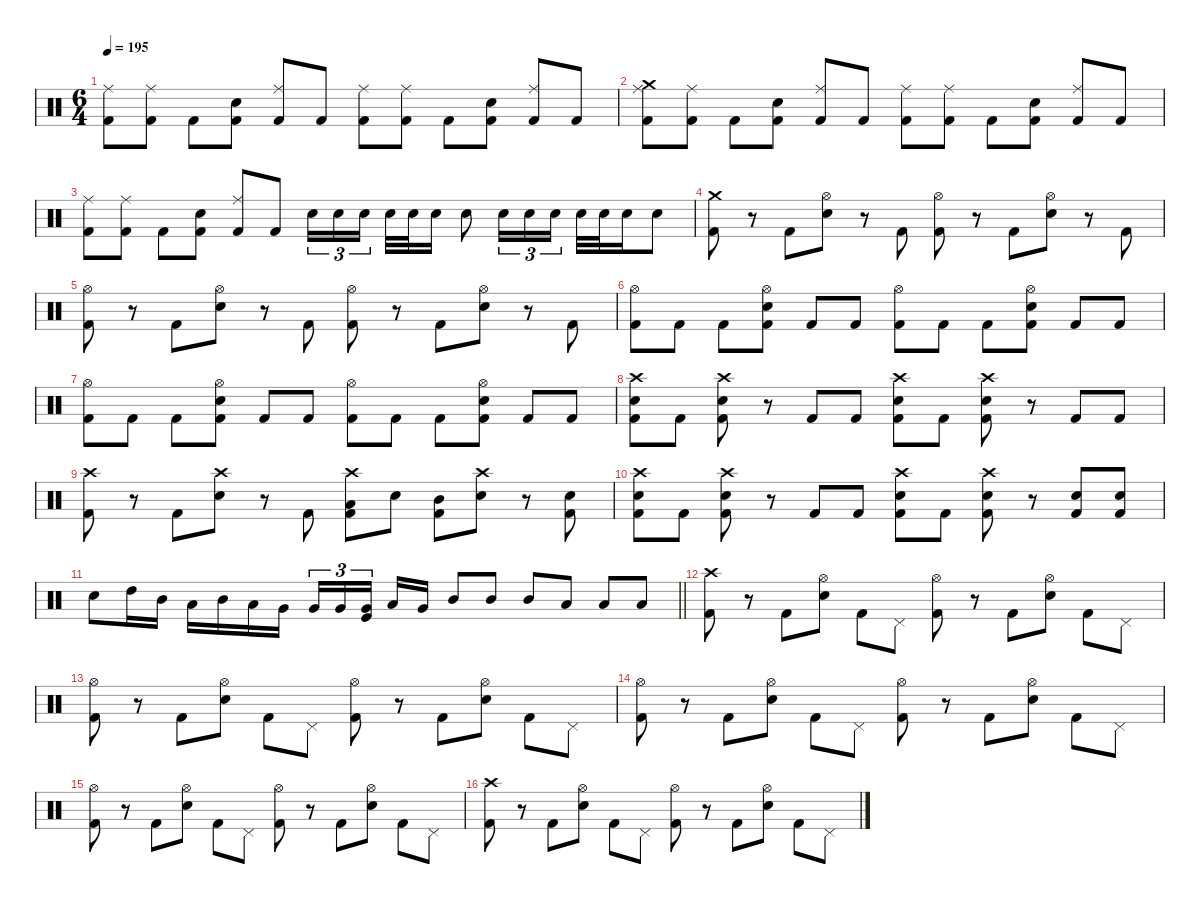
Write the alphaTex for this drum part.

\defaultSystemsLayout 4
\hideDynamics
\bracketExtendMode nobrackets
\singleTrackTrackNamePolicy hidden
\multiTrackTrackNamePolicy hidden
\firstSystemTrackNameMode fullname
\firstSystemTrackNameOrientation horizontal
\otherSystemsTrackNameOrientation horizontal
\track ("Drums" "drm.") {instrument percussion}
\staff {score}
\articulation defaults
\ts (6 4)
\tempo 195
\clef neutral
\ks c
("Ride (middle)" "Kick (hit) 2").8{dy f beam Down} ("Ride (middle)" "Kick (hit) 2").8{beam Down} "Kick (hit) 2".8{beam Down} ("Snare (hit) 2" "Kick (hit) 2").8{beam Up} ("Ride (middle)" "Kick (hit) 2").8{beam Up} "Kick (hit) 2".8{beam Up} ("Ride (middle)" "Kick (hit) 2").8{beam Down} ("Ride (middle)" "Kick (hit) 2").8{beam Down} "Kick (hit) 2".8{beam Down} ("Snare (hit) 2" "Kick (hit) 2").8{beam Up} ("Ride (middle)" "Kick (hit) 2").8{beam Up} "Kick (hit) 2".8{beam Up} |
("Ride (middle)" "Crash medium (hit)" "Kick (hit) 2").8{beam Down} ("Ride (middle)" "Kick (hit) 2").8{beam Down} "Kick (hit) 2".8{beam Down} ("Snare (hit) 2" "Kick (hit) 2").8{beam Up} ("Ride (middle)" "Kick (hit) 2").8{beam Up} "Kick (hit) 2".8{beam Up} ("Ride (middle)" "Kick (hit) 2").8{beam Down} ("Ride (middle)" "Kick (hit) 2").8{beam Down} "Kick (hit) 2".8{beam Down} ("Snare (hit) 2" "Kick (hit) 2").8{beam Up} ("Ride (middle)" "Kick (hit) 2").8{beam Up} "Kick (hit) 2".8{beam Up} |
("Ride (middle)" "Kick (hit) 2").8{beam Down} ("Ride (middle)" "Kick (hit) 2").8{beam Down} "Kick (hit) 2".8{beam Down} ("Snare (hit) 2" "Kick (hit) 2").8{beam Up} ("Ride (middle)" "Kick (hit) 2").8{beam Up} "Kick (hit) 2".8{beam Up} "Snare (hit) 2".16{tu (3 2) beam Down} "Snare (hit) 2".16{tu (3 2) beam Down} "Snare (hit) 2".16{tu (3 2) beam Down} "Snare (hit) 2".32{beam Down} "Snare (hit) 2".32{beam Down} "Snare (hit) 2".16{beam Down} "Snare (hit) 2".8{beam Down} "Snare (hit) 2".16{tu (3 2) beam Down} "Snare (hit) 2".16{tu (3 2) beam Down} "Snare (hit) 2".16{tu (3 2) beam Down} "Snare (hit) 2".32{beam Down} "Snare (hit) 2".32{beam Down} "Snare (hit) 2".16{beam Down} "Snare (hit) 2".8{beam Down} |
("Crash medium (hit)" "Kick (hit) 2").8{beam Down} r.8{beam Down} "Kick (hit) 2".8{beam Down} ("Hi-Hat (open)" "Snare (hit) 2").8{beam Down} r.8{beam Down} "Kick (hit) 2".8{beam Down} ("Hi-Hat (open)" "Kick (hit) 2").8{beam Down} r.8{beam Down} "Kick (hit) 2".8{beam Down} ("Hi-Hat (open)" "Snare (hit) 2").8{beam Down} r.8{beam Down} "Kick (hit) 2".8{beam Down} |
("Hi-Hat (open)" "Kick (hit) 2").8{beam Down} r.8{beam Down} "Kick (hit) 2".8{beam Down} ("Hi-Hat (open)" "Snare (hit) 2").8{beam Down} r.8{beam Down} "Kick (hit) 2".8{beam Down} ("Hi-Hat (open)" "Kick (hit) 2").8{beam Down} r.8{beam Down} "Kick (hit) 2".8{beam Down} ("Hi-Hat (open)" "Snare (hit) 2").8{beam Down} r.8{beam Down} "Kick (hit) 2".8{beam Down} |
("Hi-Hat (open)" "Kick (hit) 2").8{beam Down} "Kick (hit) 2".8{beam Down} "Kick (hit) 2".8{beam Down} ("Hi-Hat (open)" "Snare (hit) 2" "Kick (hit) 2").8{beam Up} "Kick (hit) 2".8{beam Up} "Kick (hit) 2".8{beam Up} ("Hi-Hat (open)" "Kick (hit) 2").8{beam Down} "Kick (hit) 2".8{beam Down} "Kick (hit) 2".8{beam Down} ("Hi-Hat (open)" "Snare (hit) 2" "Kick (hit) 2").8{beam Up} "Kick (hit) 2".8{beam Up} "Kick (hit) 2".8{beam Up} |
("Hi-Hat (open)" "Kick (hit) 2").8{beam Down} "Kick (hit) 2".8{beam Down} "Kick (hit) 2".8{beam Down} ("Hi-Hat (open)" "Snare (hit) 2" "Kick (hit) 2").8{beam Up} "Kick (hit) 2".8{beam Up} "Kick (hit) 2".8{beam Up} ("Hi-Hat (open)" "Kick (hit) 2").8{beam Down} "Kick (hit) 2".8{beam Down} "Kick (hit) 2".8{beam Down} ("Hi-Hat (open)" "Snare (hit) 2" "Kick (hit) 2").8{beam Up} "Kick (hit) 2".8{beam Up} "Kick (hit) 2".8{beam Up} |
("Crash high (hit)" "Snare (hit) 2" "Kick (hit) 2").8{beam Down} "Kick (hit) 2".8{beam Down} ("Crash high (hit)" "Snare (hit) 2" "Kick (hit) 2").8{beam Down} r.8{beam Down} "Kick (hit) 2".8{beam Up} "Kick (hit) 2".8{beam Up} ("Crash high (hit)" "Snare (hit) 2" "Kick (hit) 2").8{beam Down} "Kick (hit) 2".8{beam Down} ("Crash high (hit)" "Snare (hit) 2" "Kick (hit) 2").8{beam Down} r.8{beam Down} "Kick (hit) 2".8{beam Up} "Kick (hit) 2".8{beam Up} |
("Crash high (hit)" "Kick (hit) 2").8{beam Down} r.8{beam Down} "Kick (hit) 2".8{beam Down} ("Crash high (hit)" "Snare (hit) 2").8{beam Down} r.8{beam Down} "Kick (hit) 2".8{beam Down} ("Crash high (hit)" "Low Tom (hit)" "Kick (hit) 2").8{beam Down} "Snare (hit) 2".8{beam Down} ("Mid Tom (hit)" "Kick (hit) 2").8{beam Down} ("Crash high (hit)" "Snare (hit) 2").8{beam Down} r.8{beam Down} ("Snare (hit) 2" "Kick (hit) 2").8{beam Down} |
("Crash high (hit)" "Snare (hit) 2" "Kick (hit) 2").8{beam Down} "Kick (hit) 2".8{beam Down} ("Crash high (hit)" "Snare (hit) 2" "Kick (hit) 2").8{beam Down} r.8{beam Down} "Kick (hit) 2".8{beam Up} "Kick (hit) 2".8{beam Up} ("Crash high (hit)" "Snare (hit) 2" "Kick (hit) 2").8{beam Down} "Kick (hit) 2".8{beam Down} ("Crash high (hit)" "Snare (hit) 2" "Kick (hit) 2").8{beam Down} r.8{beam Down} ("Snare (hit) 2" "Kick (hit) 2").8{beam Up} ("Snare (hit) 2" "Kick (hit) 2").8{beam Up} |
\barLineRight lightlight "Snare (hit) 2".8{beam Down} "High Tom (hit)".16{beam Down} "Mid Tom (hit)".16{beam Down} "Low Tom (hit)".16{beam Down} "Mid Tom (hit)".16{beam Down} "Low Tom (hit)".16{beam Up} "Very Low Tom (hit)".16{beam Up} "Very Low Tom (hit)".16{tu (3 2) beam Up} "Very Low Tom (hit)".16{tu (3 2) beam Up}
("Very Low Tom (hit)" "Kick (hit)").16{tu (3 2) beam Up} "Low Tom (hit)".16{beam Up} "Very Low Tom (hit)".16{beam Up} "Mid Tom (hit)".8{beam Up} "Mid Tom (hit)".8{beam Up} "Mid Tom (hit)".8{beam Up} "Low Tom (hit)".8{beam Up} "Low Tom (hit)".8{beam Up} "Low Tom (hit)".8{beam Up} |
("Crash high (hit)" "Kick (hit) 2").8{beam Down} r.8{beam Down} "Kick (hit) 2".8{beam Down} ("Hi-Hat (open)" "Snare (hit) 2").8{beam Down} "Kick (hit) 2".8{beam Down} "Pedal Hi-Hat (hit)".8{beam Down} ("Hi-Hat (open)" "Kick (hit) 2").8{beam Down} r.8{beam Down} "Kick (hit) 2".8{beam Down} ("Hi-Hat (open)" "Snare (hit) 2").8{beam Down} "Kick (hit) 2".8{beam Down} "Pedal Hi-Hat (hit)".8{beam Down} |
("Hi-Hat (open)" "Kick (hit) 2").8{beam Down} r.8{beam Down} "Kick (hit) 2".8{beam Down} ("Hi-Hat (open)" "Snare (hit) 2").8{beam Down} "Kick (hit) 2".8{beam Down} "Pedal Hi-Hat (hit)".8{beam Down} ("Hi-Hat (open)" "Kick (hit) 2").8{beam Down} r.8{beam Down} "Kick (hit) 2".8{beam Down} ("Hi-Hat (open)" "Snare (hit) 2").8{beam Down} "Kick (hit) 2".8{beam Down} "Pedal Hi-Hat (hit)".8{beam Down} |
("Hi-Hat (open)" "Kick (hit) 2").8{beam Down} r.8{beam Down} "Kick (hit) 2".8{beam Down} ("Hi-Hat (open)" "Snare (hit) 2").8{beam Down} "Kick (hit) 2".8{beam Down} "Pedal Hi-Hat (hit)".8{beam Down} ("Hi-Hat (open)" "Kick (hit) 2").8{beam Down} r.8{beam Down} "Kick (hit) 2".8{beam Down} ("Hi-Hat (open)" "Snare (hit) 2").8{beam Down} "Kick (hit) 2".8{beam Down} "Pedal Hi-Hat (hit)".8{beam Down} |
("Hi-Hat (open)" "Kick (hit) 2").8{beam Down} r.8{beam Down} "Kick (hit) 2".8{beam Down} ("Hi-Hat (open)" "Snare (hit) 2").8{beam Down} "Kick (hit) 2".8{beam Down} "Pedal Hi-Hat (hit)".8{beam Down} ("Hi-Hat (open)" "Kick (hit) 2").8{beam Down} r.8{beam Down} "Kick (hit) 2".8{beam Down} ("Hi-Hat (open)" "Snare (hit) 2").8{beam Down} "Kick (hit) 2".8{beam Down} "Pedal Hi-Hat (hit)".8{beam Down} |
("Crash high (hit)" "Kick (hit) 2").8{beam Down} r.8{beam Down} "Kick (hit) 2".8{beam Down} ("Hi-Hat (open)" "Snare (hit) 2").8{beam Down} "Kick (hit) 2".8{beam Down} "Pedal Hi-Hat (hit)".8{beam Down} ("Hi-Hat (open)" "Kick (hit) 2").8{beam Down} r.8{beam Down} "Kick (hit) 2".8{beam Down} ("Hi-Hat (open)" "Snare (hit) 2").8{beam Down} "Kick (hit) 2".8{beam Down} "Pedal Hi-Hat (hit)".8{beam Down}
